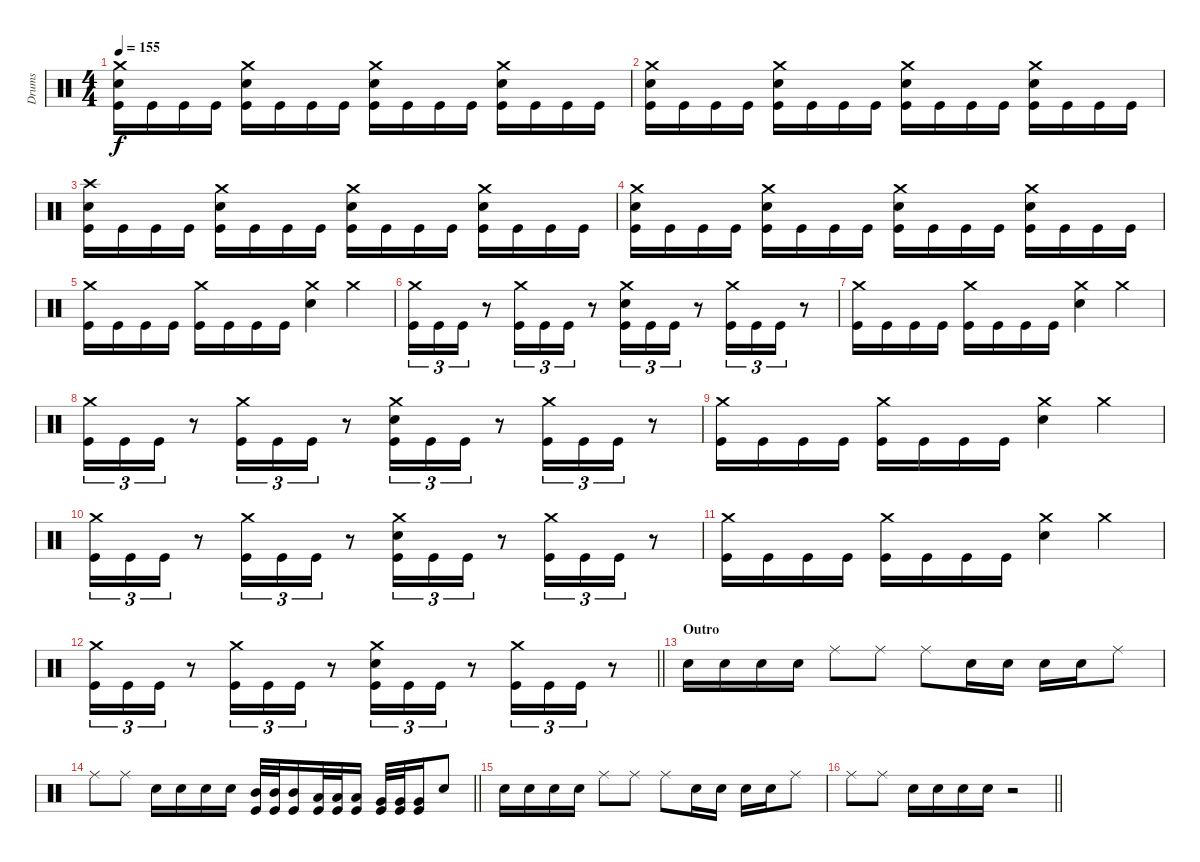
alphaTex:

\track ("Drums" "Drums") {instrument percussion}
\staff {score}
\articulation defaults
\ts (4 4)
\tempo 155
\clef neutral
\ks c
("Crash medium (hit)" "Snare (hit) 2" "Kick (hit)").16{dy f} "Kick (hit)".16 "Kick (hit)".16 "Kick (hit)".16 ("Crash medium (hit)" "Snare (hit) 2" "Kick (hit)").16 "Kick (hit)".16 "Kick (hit)".16 "Kick (hit)".16 ("Crash medium (hit)" "Snare (hit) 2" "Kick (hit)").16 "Kick (hit)".16 "Kick (hit)".16 "Kick (hit)".16 ("Crash medium (hit)" "Snare (hit) 2" "Kick (hit)").16 "Kick (hit)".16 "Kick (hit)".16 "Kick (hit)".16 |
("Crash medium (hit)" "Snare (hit) 2" "Kick (hit)").16 "Kick (hit)".16 "Kick (hit)".16 "Kick (hit)".16 ("Crash medium (hit)" "Snare (hit) 2" "Kick (hit)").16 "Kick (hit)".16 "Kick (hit)".16 "Kick (hit)".16 ("Crash medium (hit)" "Snare (hit) 2" "Kick (hit)").16 "Kick (hit)".16 "Kick (hit)".16 "Kick (hit)".16 ("Crash medium (hit)" "Snare (hit) 2" "Kick (hit)").16 "Kick (hit)".16 "Kick (hit)".16 "Kick (hit)".16 |
("Crash high (hit)" "Snare (hit) 2" "Kick (hit)").16 "Kick (hit)".16 "Kick (hit)".16 "Kick (hit)".16 ("Crash medium (hit)" "Snare (hit) 2" "Kick (hit)").16 "Kick (hit)".16 "Kick (hit)".16 "Kick (hit)".16 ("Crash medium (hit)" "Snare (hit) 2" "Kick (hit)").16 "Kick (hit)".16 "Kick (hit)".16 "Kick (hit)".16 ("Crash medium (hit)" "Snare (hit) 2" "Kick (hit)").16 "Kick (hit)".16 "Kick (hit)".16 "Kick (hit)".16 |
("Crash medium (hit)" "Snare (hit) 2" "Kick (hit)").16 "Kick (hit)".16 "Kick (hit)".16 "Kick (hit)".16 ("Crash medium (hit)" "Snare (hit) 2" "Kick (hit)").16 "Kick (hit)".16 "Kick (hit)".16 "Kick (hit)".16 ("Crash medium (hit)" "Snare (hit) 2" "Kick (hit)").16 "Kick (hit)".16 "Kick (hit)".16 "Kick (hit)".16 ("Crash medium (hit)" "Snare (hit) 2" "Kick (hit)").16 "Kick (hit)".16 "Kick (hit)".16 "Kick (hit)".16 |
("Crash medium (hit)" "Kick (hit)").16 "Kick (hit)".16 "Kick (hit)".16 "Kick (hit)".16 ("Crash medium (hit)" "Kick (hit)").16 "Kick (hit)".16 "Kick (hit)".16 "Kick (hit)".16 ("Crash medium (hit)" "Snare (hit) 2").4 "Crash medium (hit)".4 |
("Crash medium (hit)" "Kick (hit)").16{tu (3 2)} "Kick (hit)".16{tu (3 2)} "Kick (hit)".16{tu (3 2)} r.8 ("Crash medium (hit)" "Kick (hit)").16{tu (3 2)} "Kick (hit)".16{tu (3 2)} "Kick (hit)".16{tu (3 2)} r.8 ("Crash medium (hit)" "Snare (hit) 2" "Kick (hit)").16{tu (3 2)} "Kick (hit)".16{tu (3 2)} "Kick (hit)".16{tu (3 2)} r.8 ("Crash medium (hit)" "Kick (hit)").16{tu (3 2)} "Kick (hit)".16{tu (3 2)} "Kick (hit)".16{tu (3 2)} r.8 |
("Crash medium (hit)" "Kick (hit)").16 "Kick (hit)".16 "Kick (hit)".16 "Kick (hit)".16 ("Crash medium (hit)" "Kick (hit)").16 "Kick (hit)".16 "Kick (hit)".16 "Kick (hit)".16 ("Crash medium (hit)" "Snare (hit) 2").4 "Crash medium (hit)".4 |
("Crash medium (hit)" "Kick (hit)").16{tu (3 2)} "Kick (hit)".16{tu (3 2)} "Kick (hit)".16{tu (3 2)} r.8 ("Crash medium (hit)" "Kick (hit)").16{tu (3 2)} "Kick (hit)".16{tu (3 2)} "Kick (hit)".16{tu (3 2)} r.8 ("Crash medium (hit)" "Snare (hit) 2" "Kick (hit)").16{tu (3 2)} "Kick (hit)".16{tu (3 2)} "Kick (hit)".16{tu (3 2)} r.8 ("Crash medium (hit)" "Kick (hit)").16{tu (3 2)} "Kick (hit)".16{tu (3 2)} "Kick (hit)".16{tu (3 2)} r.8 |
("Crash medium (hit)" "Kick (hit)").16 "Kick (hit)".16 "Kick (hit)".16 "Kick (hit)".16 ("Crash medium (hit)" "Kick (hit)").16 "Kick (hit)".16 "Kick (hit)".16 "Kick (hit)".16 ("Crash medium (hit)" "Snare (hit) 2").4 "Crash medium (hit)".4 |
("Crash medium (hit)" "Kick (hit)").16{tu (3 2)} "Kick (hit)".16{tu (3 2)} "Kick (hit)".16{tu (3 2)} r.8 ("Crash medium (hit)" "Kick (hit)").16{tu (3 2)} "Kick (hit)".16{tu (3 2)} "Kick (hit)".16{tu (3 2)} r.8 ("Crash medium (hit)" "Snare (hit) 2" "Kick (hit)").16{tu (3 2)} "Kick (hit)".16{tu (3 2)} "Kick (hit)".16{tu (3 2)} r.8 ("Crash medium (hit)" "Kick (hit)").16{tu (3 2)} "Kick (hit)".16{tu (3 2)} "Kick (hit)".16{tu (3 2)} r.8 |
("Crash medium (hit)" "Kick (hit)").16 "Kick (hit)".16 "Kick (hit)".16 "Kick (hit)".16 ("Crash medium (hit)" "Kick (hit)").16 "Kick (hit)".16 "Kick (hit)".16 "Kick (hit)".16 ("Crash medium (hit)" "Snare (hit) 2").4 "Crash medium (hit)".4 |
\barLineRight lightlight
("Crash medium (hit)" "Kick (hit)").16{tu (3 2)} "Kick (hit)".16{tu (3 2)} "Kick (hit)".16{tu (3 2)} r.8 ("Crash medium (hit)" "Kick (hit)").16{tu (3 2)} "Kick (hit)".16{tu (3 2)} "Kick (hit)".16{tu (3 2)} r.8 ("Crash medium (hit)" "Snare (hit) 2" "Kick (hit)").16{tu (3 2)} "Kick (hit)".16{tu (3 2)} "Kick (hit)".16{tu (3 2)} r.8 ("Crash medium (hit)" "Kick (hit)").16{tu (3 2)} "Kick (hit)".16{tu (3 2)} "Kick (hit)".16{tu (3 2)} r.8 |
\section ("" "Outro")
"Snare (hit) 2".16 "Snare (hit) 2".16 "Snare (hit) 2".16 "Snare (hit) 2".16 "Ride (middle)".8 "Ride (middle)".8 "Ride (middle)".8 "Snare (hit) 2".16 "Snare (hit) 2".16 "Snare (hit) 2".16 "Snare (hit) 2".16 "Ride (middle)".8 |
\barLineRight lightlight "Ride (middle)".8 "Ride (middle)".8 "Snare (hit) 2".16 "Snare (hit) 2".16 "Snare (hit) 2".16 "Snare (hit) 2".16
("Mid Tom (hit)" "Kick (hit)").32 ("Mid Tom (hit)" "Kick (hit)").32 ("Mid Tom (hit)" "Kick (hit)").16 ("Low Tom (hit)" "Kick (hit)").32 ("Low Tom (hit)" "Kick (hit)").32 ("Low Tom (hit)" "Kick (hit)").16 ("Very Low Tom (hit)" "Kick (hit)").32 ("Very Low Tom (hit)" "Kick (hit)").32 ("Very Low Tom (hit)" "Kick (hit)").16 "Snare (hit) 2".8 |
"Snare (hit) 2".16 "Snare (hit) 2".16 "Snare (hit) 2".16 "Snare (hit) 2".16 "Ride (middle)".8 "Ride (middle)".8 "Ride (middle)".8 "Snare (hit) 2".16 "Snare (hit) 2".16 "Snare (hit) 2".16 "Snare (hit) 2".16 "Ride (middle)".8 |
\barLineRight lightlight "Ride (middle)".8 "Ride (middle)".8 "Snare (hit) 2".16 "Snare (hit) 2".16 "Snare (hit) 2".16 "Snare (hit) 2".16
r.2
